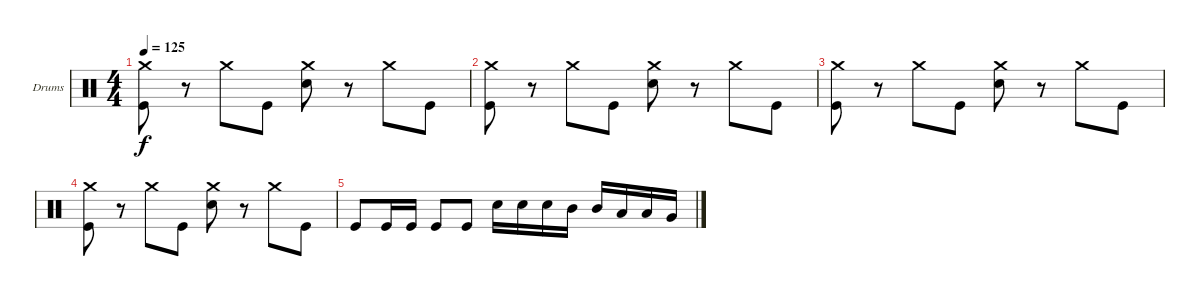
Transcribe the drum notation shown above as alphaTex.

\defaultSystemsLayout 4
\bracketExtendMode groupsimilarinstruments
\firstSystemTrackNameOrientation horizontal
\otherSystemsTrackNameOrientation horizontal
\track ("Drumkit" "Drums") {instrument percussion}
\staff {score}
\articulation defaults
\ts (4 4)
\tempo 125
\clef neutral
\ks c
("Crash medium (hit)" "Kick (hit)").8{dy f} r.8 "Crash medium (hit)".8 "Kick (hit)".8 ("Crash medium (hit)" "Snare (hit) 2").8 r.8 "Crash medium (hit)".8 "Kick (hit)".8 |
("Crash medium (hit)" "Kick (hit)").8 r.8 "Crash medium (hit)".8 "Kick (hit)".8 ("Crash medium (hit)" "Snare (hit) 2").8 r.8 "Crash medium (hit)".8 "Kick (hit)".8 |
("Crash medium (hit)" "Kick (hit)").8 r.8 "Crash medium (hit)".8 "Kick (hit)".8 ("Crash medium (hit)" "Snare (hit) 2").8 r.8 "Crash medium (hit)".8 "Kick (hit)".8 |
("Crash medium (hit)" "Kick (hit)").8 r.8 "Crash medium (hit)".8 "Kick (hit)".8 ("Crash medium (hit)" "Snare (hit) 2").8 r.8 "Crash medium (hit)".8 "Kick (hit)".8 |
"Kick (hit)".8 "Kick (hit)".16 "Kick (hit)".16 "Kick (hit)".8 "Kick (hit)".8 "Snare (hit) 2".16 "Snare (hit) 2".16 "Snare (hit) 2".16 "Mid Tom (hit)".16 "Mid Tom (hit)".16 "Low Tom (hit)".16 "Low Tom (hit)".16 "Very Low Tom (hit)".16
